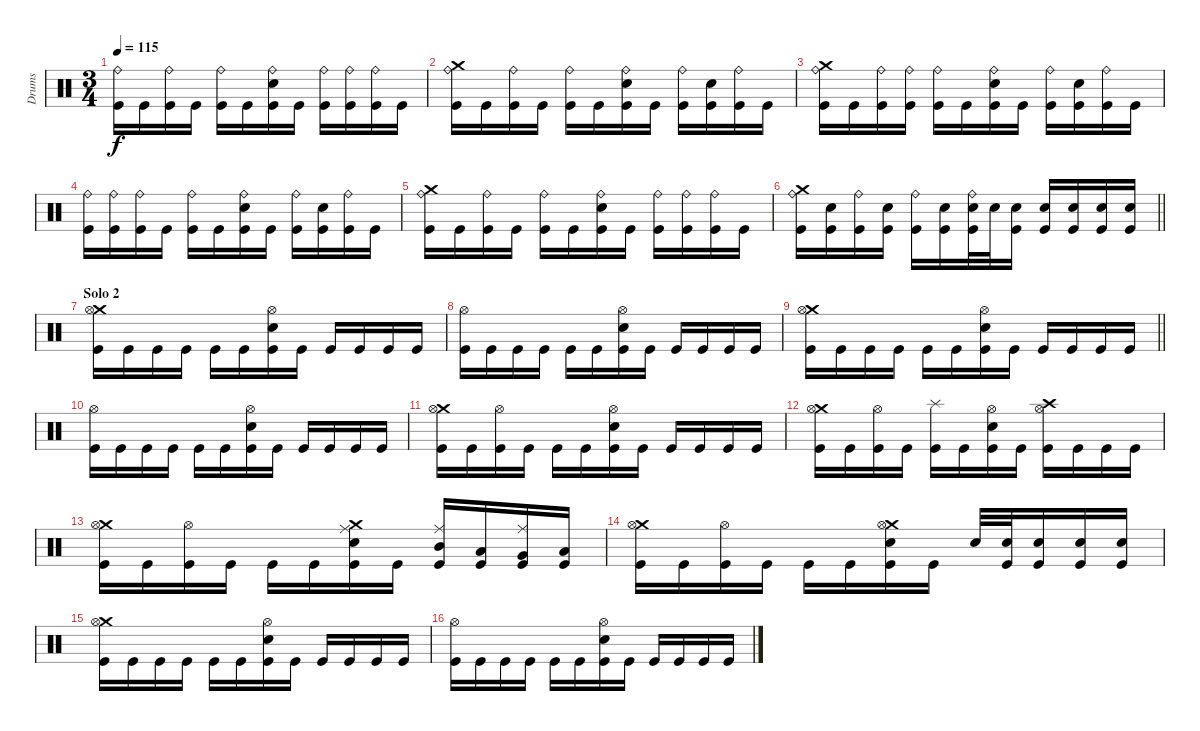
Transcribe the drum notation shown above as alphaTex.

\track ("Drums" "Drums") {instrument percussion}
\staff {score}
\articulation defaults
\ts (3 4)
\tempo 115
\clef neutral
\ks c
("Ride (bell)" "Kick (hit)").16{dy f} "Kick (hit)".16 ("Ride (bell)" "Kick (hit)").16 "Kick (hit)".16 ("Ride (bell)" "Kick (hit)").16 "Kick (hit)".16 ("Ride (bell)" "Electric Snare (hit)" "Kick (hit)").16 "Kick (hit)".16 ("Ride (bell)" "Kick (hit)").16 ("Ride (bell)" "Kick (hit)").16 ("Ride (bell)" "Kick (hit)").16 "Kick (hit)".16 |
("Crash medium (hit)" "Ride (bell)" "Kick (hit)").16 "Kick (hit)".16 ("Ride (bell)" "Kick (hit)").16 "Kick (hit)".16 ("Ride (bell)" "Kick (hit)").16 "Kick (hit)".16 ("Ride (bell)" "Electric Snare (hit)" "Kick (hit)").16 "Kick (hit)".16 ("Ride (bell)" "Kick (hit)").16 ("Electric Snare (hit)" "Kick (hit)").16 ("Ride (bell)" "Kick (hit)").16 "Kick (hit)".16 |
("Crash medium (hit)" "Ride (bell)" "Kick (hit)").16 "Kick (hit)".16 ("Ride (bell)" "Kick (hit)").16 ("Ride (bell)" "Kick (hit)").16 ("Ride (bell)" "Kick (hit)").16 "Kick (hit)".16 ("Ride (bell)" "Electric Snare (hit)" "Kick (hit)").16 "Kick (hit)".16 ("Ride (bell)" "Kick (hit)").16 ("Electric Snare (hit)" "Kick (hit)").16 ("Ride (bell)" "Kick (hit)").16 "Kick (hit)".16 |
("Ride (bell)" "Kick (hit)").16 ("Ride (bell)" "Kick (hit)").16 ("Ride (bell)" "Kick (hit)").16 "Kick (hit)".16 ("Ride (bell)" "Kick (hit)").16 "Kick (hit)".16 ("Ride (bell)" "Electric Snare (hit)" "Kick (hit)").16 "Kick (hit)".16 ("Ride (bell)" "Kick (hit)").16 ("Electric Snare (hit)" "Kick (hit)").16 ("Ride (bell)" "Kick (hit)").16 "Kick (hit)".16 |
("Crash medium (hit)" "Ride (bell)" "Kick (hit)").16 "Kick (hit)".16 ("Ride (bell)" "Kick (hit)").16 "Kick (hit)".16 ("Ride (bell)" "Kick (hit)").16 "Kick (hit)".16 ("Ride (bell)" "Electric Snare (hit)" "Kick (hit)").16 "Kick (hit)".16 ("Ride (bell)" "Kick (hit)").16 ("Ride (bell)" "Kick (hit)").16 ("Ride (bell)" "Kick (hit)").16 "Kick (hit)".16 |
\barLineRight lightlight
("Crash medium (hit)" "Ride (bell)" "Kick (hit)").16 ("Electric Snare (hit)" "Kick (hit)").16 ("Ride (bell)" "Kick (hit)").16 ("Electric Snare (hit)" "Kick (hit)").16 ("Ride (bell)" "Kick (hit)").16 ("Electric Snare (hit)" "Kick (hit)").16 ("Ride (bell)" "Electric Snare (hit)" "Kick (hit)").32 "Electric Snare (hit)".32 ("Electric Snare (hit)" "Kick (hit)").16 ("Electric Snare (hit)" "Kick (hit)").16 ("Electric Snare (hit)" "Kick (hit)").16 ("Electric Snare (hit)" "Kick (hit)").16 ("Electric Snare (hit)" "Kick (hit)").16 |
\section ("" "Solo 2")
("Crash medium (hit)" "Hi-Hat (open)" "Kick (hit)").16 "Kick (hit)".16 "Kick (hit)".16 "Kick (hit)".16 "Kick (hit)".16 "Kick (hit)".16 ("Hi-Hat (open)" "Electric Snare (hit)" "Kick (hit)").16 "Kick (hit)".16 "Kick (hit)".16 "Kick (hit)".16 "Kick (hit)".16 "Kick (hit)".16 |
("Hi-Hat (open)" "Kick (hit)").16 "Kick (hit)".16 "Kick (hit)".16 "Kick (hit)".16 "Kick (hit)".16 "Kick (hit)".16 ("Hi-Hat (open)" "Electric Snare (hit)" "Kick (hit)").16 "Kick (hit)".16 "Kick (hit)".16 "Kick (hit)".16 "Kick (hit)".16 "Kick (hit)".16 |
\barLineRight lightlight
("Crash medium (hit)" "Hi-Hat (open)" "Kick (hit)").16 "Kick (hit)".16 "Kick (hit)".16 "Kick (hit)".16 "Kick (hit)".16 "Kick (hit)".16 ("Hi-Hat (open)" "Electric Snare (hit)" "Kick (hit)").16 "Kick (hit)".16 "Kick (hit)".16 "Kick (hit)".16 "Kick (hit)".16 "Kick (hit)".16 |
("Hi-Hat (open)" "Kick (hit)").16 "Kick (hit)".16 "Kick (hit)".16 "Kick (hit)".16 "Kick (hit)".16 "Kick (hit)".16 ("Hi-Hat (open)" "Electric Snare (hit)" "Kick (hit)").16 "Kick (hit)".16 "Kick (hit)".16 "Kick (hit)".16 "Kick (hit)".16 "Kick (hit)".16 |
("Crash medium (hit)" "Hi-Hat (open)" "Kick (hit)").16 "Kick (hit)".16 ("Hi-Hat (open)" "Kick (hit)").16 "Kick (hit)".16 "Kick (hit)".16 "Kick (hit)".16 ("Hi-Hat (open)" "Electric Snare (hit)" "Kick (hit)").16 "Kick (hit)".16 "Kick (hit)".16 "Kick (hit)".16 "Kick (hit)".16 "Kick (hit)".16 |
("Crash medium (hit)" "Hi-Hat (open)" "Kick (hit)").16 "Kick (hit)".16 ("Hi-Hat (open)" "Kick (hit)").16 "Kick (hit)".16 ("Splash (hit)" "Kick (hit)").16 "Kick (hit)".16 ("Hi-Hat (open)" "Electric Snare (hit)" "Kick (hit)").16 "Kick (hit)".16 ("Crash high (hit)" "Hi-Hat (open)" "Kick (hit)").16 "Kick (hit)".16 "Kick (hit)".16 "Kick (hit)".16 |
("Crash medium (hit)" "Hi-Hat (open)" "Kick (hit)").16 "Kick (hit)".16 ("Hi-Hat (open)" "Kick (hit)").16 "Kick (hit)".16 "Kick (hit)".16 "Kick (hit)".16 ("Crash medium (hit)" "Ride (middle)" "Electric Snare (hit)" "Kick (hit)").16 "Kick (hit)".16 ("Mid Tom (hit)" "Ride (middle)" "Kick (hit)").16 ("Low Tom (hit)" "Kick (hit)").16 ("Very Low Tom (hit)" "Ride (middle)" "Kick (hit)").16 ("Low Floor Tom (hit)" "Kick (hit)").16 |
("Crash medium (hit)" "Hi-Hat (open)" "Kick (hit)").16 "Kick (hit)".16 ("Hi-Hat (open)" "Kick (hit)").16 "Kick (hit)".16 "Kick (hit)".16 "Kick (hit)".16 ("Crash medium (hit)" "Hi-Hat (open)" "Electric Snare (hit)" "Kick (hit)").16 "Kick (hit)".16 "Electric Snare (hit)".32 ("Electric Snare (hit)" "Kick (hit)").32 ("Electric Snare (hit)" "Kick (hit)").16 ("Electric Snare (hit)" "Kick (hit)").16 ("Electric Snare (hit)" "Kick (hit)").16 |
("Crash medium (hit)" "Hi-Hat (open)" "Kick (hit)").16 "Kick (hit)".16 "Kick (hit)".16 "Kick (hit)".16 "Kick (hit)".16 "Kick (hit)".16 ("Hi-Hat (open)" "Electric Snare (hit)" "Kick (hit)").16 "Kick (hit)".16 "Kick (hit)".16 "Kick (hit)".16 "Kick (hit)".16 "Kick (hit)".16 |
("Hi-Hat (open)" "Kick (hit)").16 "Kick (hit)".16 "Kick (hit)".16 "Kick (hit)".16 "Kick (hit)".16 "Kick (hit)".16 ("Hi-Hat (open)" "Electric Snare (hit)" "Kick (hit)").16 "Kick (hit)".16 "Kick (hit)".16 "Kick (hit)".16 "Kick (hit)".16 "Kick (hit)".16
